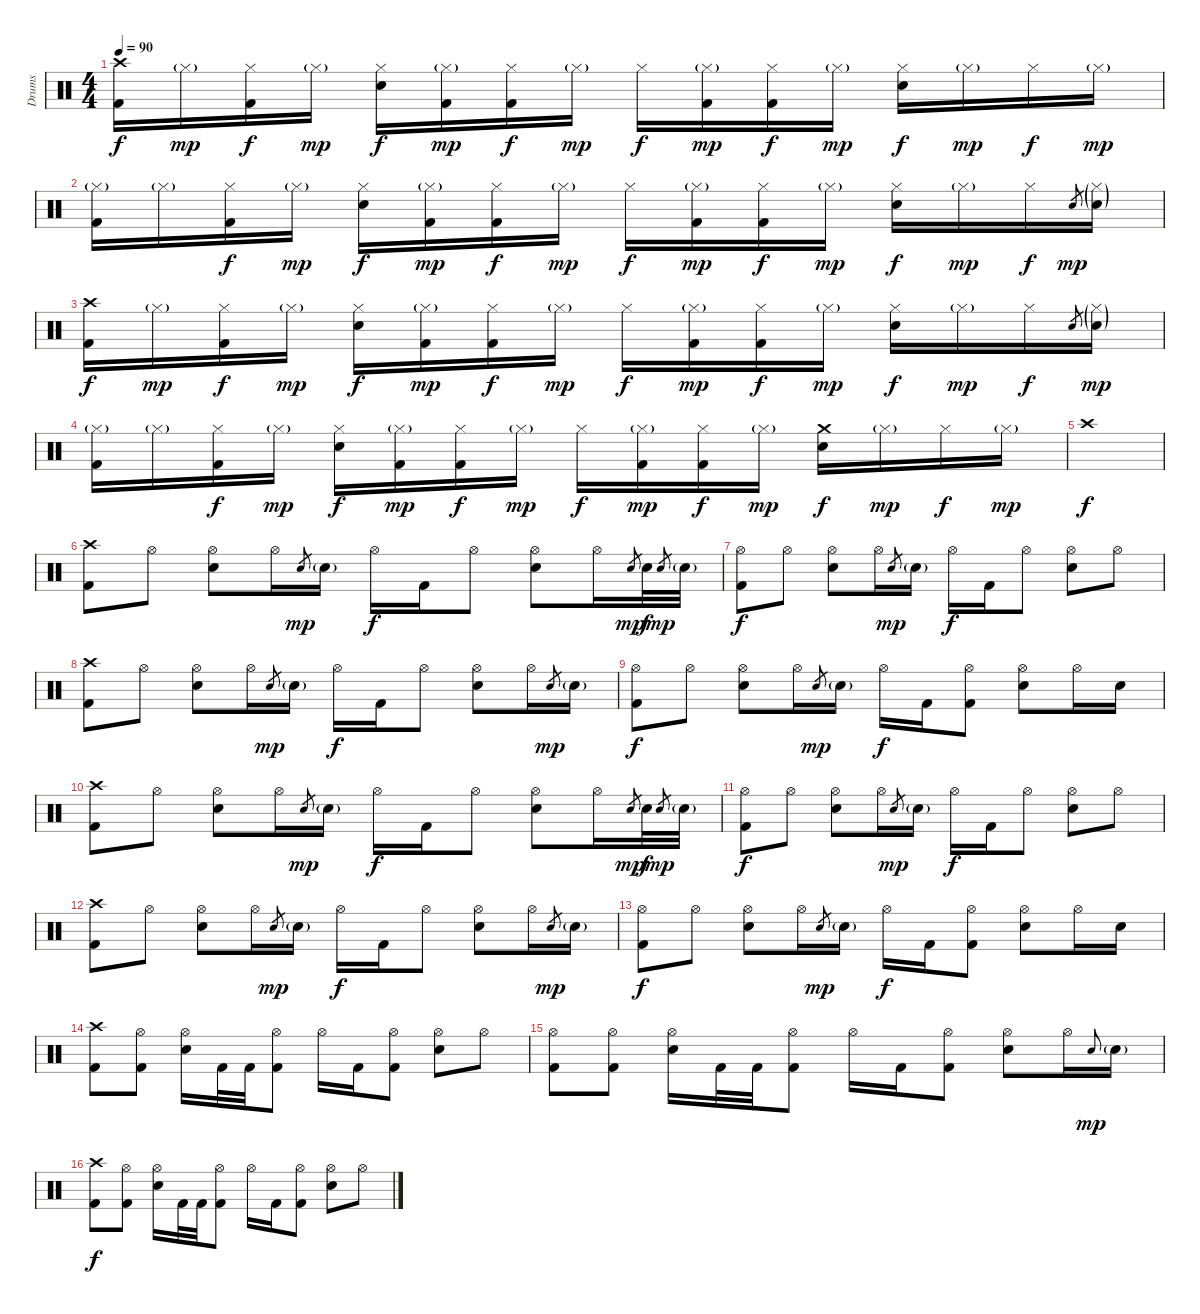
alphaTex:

\track ("Drums" "Drums") {instrument percussion}
\staff {score}
\articulation defaults
\ts (4 4)
\tempo 90
\clef neutral
\ks c
("Crash high (hit)" "Kick (hit) 2").16{dy f} "Hi-Hat (closed)"{g}.16{dy mp} ("Hi-Hat (closed)" "Kick (hit) 2").16{dy f} "Hi-Hat (closed)"{g}.16{dy mp} ("Hi-Hat (closed)" "Electric Snare (hit)").16{dy f} ("Hi-Hat (closed)"{g} "Kick (hit) 2").16{dy mp} ("Hi-Hat (closed)" "Kick (hit) 2").16{dy f} "Hi-Hat (closed)"{g}.16{dy mp} "Hi-Hat (closed)".16{dy f} ("Hi-Hat (closed)"{g} "Kick (hit) 2").16{dy mp} ("Hi-Hat (closed)" "Kick (hit) 2").16{dy f} "Hi-Hat (closed)"{g}.16{dy mp} ("Hi-Hat (closed)" "Electric Snare (hit)").16{dy f} "Hi-Hat (closed)"{g}.16{dy mp} "Hi-Hat (closed)".16{dy f} "Hi-Hat (closed)"{g}.16{dy mp} |
("Hi-Hat (closed)"{g} "Kick (hit) 2").16 "Hi-Hat (closed)"{g}.16 ("Hi-Hat (closed)" "Kick (hit) 2").16{dy f} "Hi-Hat (closed)"{g}.16{dy mp} ("Hi-Hat (closed)" "Electric Snare (hit)").16{dy f} ("Hi-Hat (closed)"{g} "Kick (hit) 2").16{dy mp} ("Hi-Hat (closed)" "Kick (hit) 2").16{dy f} "Hi-Hat (closed)"{g}.16{dy mp} "Hi-Hat (closed)".16{dy f} ("Hi-Hat (closed)"{g} "Kick (hit) 2").16{dy mp} ("Hi-Hat (closed)" "Kick (hit) 2").16{dy f} "Hi-Hat (closed)"{g}.16{dy mp} ("Hi-Hat (closed)" "Electric Snare (hit)").16{dy f} "Hi-Hat (closed)"{g}.16{dy mp} "Hi-Hat (closed)".16{dy f} "Electric Snare (hit)".8{gr dy mp} ("Hi-Hat (closed)"{g} "Electric Snare (hit)"{g}).16 |
("Crash high (hit)" "Kick (hit) 2").16{dy f} "Hi-Hat (closed)"{g}.16{dy mp} ("Hi-Hat (closed)" "Kick (hit) 2").16{dy f} "Hi-Hat (closed)"{g}.16{dy mp} ("Hi-Hat (closed)" "Electric Snare (hit)").16{dy f} ("Hi-Hat (closed)"{g} "Kick (hit) 2").16{dy mp} ("Hi-Hat (closed)" "Kick (hit) 2").16{dy f} "Hi-Hat (closed)"{g}.16{dy mp} "Hi-Hat (closed)".16{dy f} ("Hi-Hat (closed)"{g} "Kick (hit) 2").16{dy mp} ("Hi-Hat (closed)" "Kick (hit) 2").16{dy f} "Hi-Hat (closed)"{g}.16{dy mp} ("Hi-Hat (closed)" "Electric Snare (hit)").16{dy f} "Hi-Hat (closed)"{g}.16{dy mp} "Hi-Hat (closed)".16{dy f} "Electric Snare (hit)".8{gr} ("Hi-Hat (closed)"{g} "Electric Snare (hit)"{g}).16{dy mp} |
("Hi-Hat (closed)"{g} "Kick (hit) 2").16 "Hi-Hat (closed)"{g}.16 ("Hi-Hat (closed)" "Kick (hit) 2").16{dy f} "Hi-Hat (closed)"{g}.16{dy mp} ("Hi-Hat (closed)" "Electric Snare (hit)").16{dy f} ("Hi-Hat (closed)"{g} "Kick (hit) 2").16{dy mp} ("Hi-Hat (closed)" "Kick (hit) 2").16{dy f} "Hi-Hat (closed)"{g}.16{dy mp} "Hi-Hat (closed)".16{dy f} ("Hi-Hat (closed)"{g} "Kick (hit) 2").16{dy mp} ("Hi-Hat (closed)" "Kick (hit) 2").16{dy f} "Hi-Hat (closed)"{g}.16{dy mp} ("Crash medium (hit)" "Electric Snare (hit)").16{dy f} "Hi-Hat (closed)"{g}.16{dy mp} "Hi-Hat (closed)".16{dy f} "Hi-Hat (closed)"{g}.16{dy mp} |
"Crash high (hit)".1{dy f} |
("Crash high (hit)" "Kick (hit) 2").8 "Hi-Hat (open)".8 ("Hi-Hat (open)" "Electric Snare (hit)").8 "Hi-Hat (open)".16 "Electric Snare (hit)"{x}.8{gr dy mp} "Electric Snare (hit)"{g}.16 "Hi-Hat (open)".16{dy f} "Kick (hit) 2".16 "Hi-Hat (open)".8 ("Hi-Hat (open)" "Electric Snare (hit)").8 "Hi-Hat (open)".16 "Electric Snare (hit)"{x}.8{gr dy mp} "Electric Snare (hit)".32{dy f} "Electric Snare (hit)"{x}.8{gr dy mp} "Electric Snare (hit)"{g}.32 |
("Hi-Hat (open)" "Kick (hit) 2").8{dy f} "Hi-Hat (open)".8 ("Hi-Hat (open)" "Electric Snare (hit)").8 "Hi-Hat (open)".16 "Electric Snare (hit)"{x}.8{gr dy mp} "Electric Snare (hit)"{g}.16 "Hi-Hat (open)".16{dy f} "Kick (hit) 2".16 "Hi-Hat (open)".8 ("Hi-Hat (open)" "Electric Snare (hit)").8 "Hi-Hat (open)".8 |
("Crash high (hit)" "Kick (hit) 2").8 "Hi-Hat (open)".8 ("Hi-Hat (open)" "Electric Snare (hit)").8 "Hi-Hat (open)".16 "Electric Snare (hit)"{x}.8{gr dy mp} "Electric Snare (hit)"{g}.16 "Hi-Hat (open)".16{dy f} "Kick (hit) 2".16 "Hi-Hat (open)".8 ("Hi-Hat (open)" "Electric Snare (hit)").8 "Hi-Hat (open)".16 "Electric Snare (hit)".8{gr dy mp} "Electric Snare (hit)"{g}.16 |
("Hi-Hat (open)" "Kick (hit) 2").8{dy f} "Hi-Hat (open)".8 ("Hi-Hat (open)" "Electric Snare (hit)").8 "Hi-Hat (open)".16 "Electric Snare (hit)"{x}.8{gr dy mp} "Electric Snare (hit)"{g}.16 "Hi-Hat (open)".16{dy f} "Kick (hit) 2".16 ("Hi-Hat (open)" "Kick (hit) 2").8 ("Hi-Hat (open)" "Electric Snare (hit)").8 "Hi-Hat (open)".16 "Electric Snare (hit)".16 |
("Crash high (hit)" "Kick (hit) 2").8 "Hi-Hat (open)".8 ("Hi-Hat (open)" "Electric Snare (hit)").8 "Hi-Hat (open)".16 "Electric Snare (hit)"{x}.8{gr dy mp} "Electric Snare (hit)"{g}.16 "Hi-Hat (open)".16{dy f} "Kick (hit) 2".16 "Hi-Hat (open)".8 ("Hi-Hat (open)" "Electric Snare (hit)").8 "Hi-Hat (open)".16 "Electric Snare (hit)"{x}.8{gr dy mp} "Electric Snare (hit)".32{dy f} "Electric Snare (hit)"{x}.8{gr dy mp} "Electric Snare (hit)"{g}.32 |
("Hi-Hat (open)" "Kick (hit) 2").8{dy f} "Hi-Hat (open)".8 ("Hi-Hat (open)" "Electric Snare (hit)").8 "Hi-Hat (open)".16 "Electric Snare (hit)"{x}.8{gr dy mp} "Electric Snare (hit)"{g}.16 "Hi-Hat (open)".16{dy f} "Kick (hit) 2".16 "Hi-Hat (open)".8 ("Hi-Hat (open)" "Electric Snare (hit)").8 "Hi-Hat (open)".8 |
("Crash high (hit)" "Kick (hit) 2").8 "Hi-Hat (open)".8 ("Hi-Hat (open)" "Electric Snare (hit)").8 "Hi-Hat (open)".16 "Electric Snare (hit)"{x}.8{gr dy mp} "Electric Snare (hit)"{g}.16 "Hi-Hat (open)".16{dy f} "Kick (hit) 2".16 "Hi-Hat (open)".8 ("Hi-Hat (open)" "Electric Snare (hit)").8 "Hi-Hat (open)".16 "Electric Snare (hit)".8{gr dy mp} "Electric Snare (hit)"{g}.16 |
("Hi-Hat (open)" "Kick (hit) 2").8{dy f} "Hi-Hat (open)".8 ("Hi-Hat (open)" "Electric Snare (hit)").8 "Hi-Hat (open)".16 "Electric Snare (hit)"{x}.8{gr dy mp} "Electric Snare (hit)"{g}.16 "Hi-Hat (open)".16{dy f} "Kick (hit) 2".16 ("Hi-Hat (open)" "Kick (hit) 2").8 ("Hi-Hat (open)" "Electric Snare (hit)").8 "Hi-Hat (open)".16 "Electric Snare (hit)".16 |
("Crash high (hit)" "Kick (hit) 2").8 ("Hi-Hat (open)" "Kick (hit) 2").8 ("Hi-Hat (open)" "Electric Snare (hit)").16 "Kick (hit) 2".32 "Kick (hit) 2".32 ("Hi-Hat (open)" "Kick (hit) 2").8 "Hi-Hat (open)".16 "Kick (hit) 2".16 ("Hi-Hat (open)" "Kick (hit) 2").8 ("Hi-Hat (open)" "Electric Snare (hit)").8 "Hi-Hat (open)".8 |
("Hi-Hat (open)" "Kick (hit) 2").8 ("Hi-Hat (open)" "Kick (hit) 2").8 ("Hi-Hat (open)" "Electric Snare (hit)").16 "Kick (hit) 2".32 "Kick (hit) 2".32 ("Hi-Hat (open)" "Kick (hit) 2").8 "Hi-Hat (open)".16 "Kick (hit) 2".16 ("Hi-Hat (open)" "Kick (hit) 2").8 ("Hi-Hat (open)" "Electric Snare (hit)").8 "Hi-Hat (open)".16 "Electric Snare (hit)"{x}.8{gr onbeat dy mp} "Electric Snare (hit)"{g}.16 |
("Crash high (hit)" "Kick (hit) 2").8{dy f} ("Hi-Hat (open)" "Kick (hit) 2").8 ("Hi-Hat (open)" "Electric Snare (hit)").16 "Kick (hit) 2".32 "Kick (hit) 2".32 ("Hi-Hat (open)" "Kick (hit) 2").8 "Hi-Hat (open)".16 "Kick (hit) 2".16 ("Hi-Hat (open)" "Kick (hit) 2").8 ("Hi-Hat (open)" "Electric Snare (hit)").8 "Hi-Hat (open)".8
